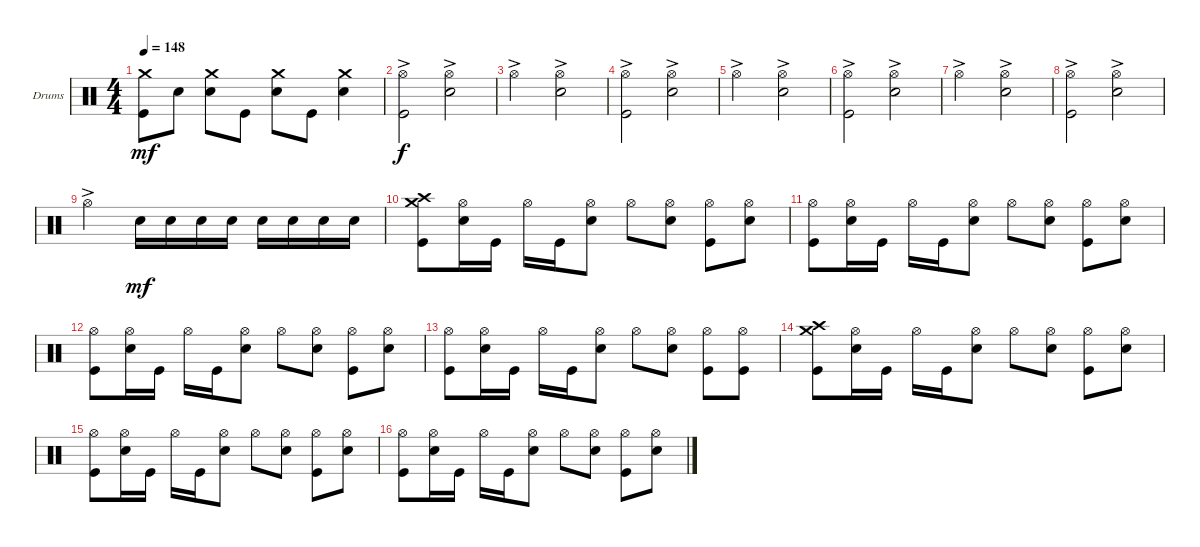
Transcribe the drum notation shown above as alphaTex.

\bracketExtendMode groupsimilarinstruments
\firstSystemTrackNameOrientation horizontal
\otherSystemsTrackNameOrientation horizontal
\track ("Drumkit" "Drums") {instrument percussion}
\staff {score}
\articulation defaults
\ts (4 4)
\tempo 148
\clef neutral
\scale
0.333333
\ks c
("Crash medium (hit)" "Kick (hit)").8{dy mf} "Snare (hit) 2".8 ("Crash medium (hit)" "Snare (hit) 2").8 "Kick (hit)".8 ("Snare (hit) 2" "Crash medium (hit)").8 "Kick (hit)".8 ("Snare (hit) 2" "Crash medium (hit)").4 |
\scale
0.333333 ("Kick (hit)" "Hi-Hat (open)"{ac}).2{dy f} ("Snare (hit) 2" "Hi-Hat (open)"{ac}).2 |
\scale
0.333333 "Hi-Hat (open)"{ac}.2 ("Snare (hit) 2" "Hi-Hat (open)"{ac}).2 |
\scale
0.333333 ("Kick (hit)" "Hi-Hat (open)"{ac}).2 ("Snare (hit) 2" "Hi-Hat (open)"{ac}).2 |
\scale
0.333333 "Hi-Hat (open)"{ac}.2 ("Snare (hit) 2" "Hi-Hat (open)"{ac}).2 |
\scale
0.333333 ("Kick (hit)" "Hi-Hat (open)"{ac}).2 ("Snare (hit) 2" "Hi-Hat (open)"{ac}).2 |
\scale
0.333333 "Hi-Hat (open)"{ac}.2 ("Snare (hit) 2" "Hi-Hat (open)"{ac}).2 |
\scale
0.333333 ("Kick (hit)" "Hi-Hat (open)"{ac}).2 ("Snare (hit) 2" "Hi-Hat (open)"{ac}).2 |
\scale
0.333333 "Hi-Hat (open)"{ac}.2 "Snare (hit) 2".16{dy mf} "Snare (hit) 2".16 "Snare (hit) 2".16 "Snare (hit) 2".16 "Snare (hit) 2".16 "Snare (hit) 2".16 "Snare (hit) 2".16 "Snare (hit) 2".16 |
\scale
0.333333 ("Kick (hit)" "Crash high (hit)" "Crash medium (hit)").8 ("Snare (hit) 2" "Hi-Hat (open)").16 "Kick (hit)".16 "Hi-Hat (open)".16 "Kick (hit)".16 ("Snare (hit) 2" "Hi-Hat (open)").8 "Hi-Hat (open)".8 ("Snare (hit) 2" "Hi-Hat (open)").8 ("Kick (hit)" "Hi-Hat (open)").8 ("Snare (hit) 2" "Hi-Hat (open)").8 |
\scale
0.333333 ("Kick (hit)" "Hi-Hat (open)").8 ("Snare (hit) 2" "Hi-Hat (open)").16 "Kick (hit)".16 "Hi-Hat (open)".16 "Kick (hit)".16 ("Snare (hit) 2" "Hi-Hat (open)").8 "Hi-Hat (open)".8 ("Snare (hit) 2" "Hi-Hat (open)").8 ("Kick (hit)" "Hi-Hat (open)").8 ("Snare (hit) 2" "Hi-Hat (open)").8 |
\scale
0.333333 ("Kick (hit)" "Hi-Hat (open)").8 ("Snare (hit) 2" "Hi-Hat (open)").16 "Kick (hit)".16 "Hi-Hat (open)".16 "Kick (hit)".16 ("Snare (hit) 2" "Hi-Hat (open)").8 "Hi-Hat (open)".8 ("Snare (hit) 2" "Hi-Hat (open)").8 ("Kick (hit)" "Hi-Hat (open)").8 ("Snare (hit) 2" "Hi-Hat (open)").8 |
\scale
0.333333 ("Kick (hit)" "Hi-Hat (open)").8 ("Snare (hit) 2" "Hi-Hat (open)").16 "Kick (hit)".16 "Hi-Hat (open)".16 "Kick (hit)".16 ("Snare (hit) 2" "Hi-Hat (open)").8 "Hi-Hat (open)".8 ("Snare (hit) 2" "Hi-Hat (open)").8 ("Kick (hit)" "Hi-Hat (open)").8 ("Hi-Hat (open)" "Kick (hit)").8 |
\scale
0.333333 ("Kick (hit)" "Crash high (hit)" "Crash medium (hit)").8 ("Snare (hit) 2" "Hi-Hat (open)").16 "Kick (hit)".16 "Hi-Hat (open)".16 "Kick (hit)".16 ("Snare (hit) 2" "Hi-Hat (open)").8 "Hi-Hat (open)".8 ("Snare (hit) 2" "Hi-Hat (open)").8 ("Kick (hit)" "Hi-Hat (open)").8 ("Snare (hit) 2" "Hi-Hat (open)").8 |
\scale
0.333333 ("Kick (hit)" "Hi-Hat (open)").8 ("Snare (hit) 2" "Hi-Hat (open)").16 "Kick (hit)".16 "Hi-Hat (open)".16 "Kick (hit)".16 ("Snare (hit) 2" "Hi-Hat (open)").8 "Hi-Hat (open)".8 ("Snare (hit) 2" "Hi-Hat (open)").8 ("Kick (hit)" "Hi-Hat (open)").8 ("Snare (hit) 2" "Hi-Hat (open)").8 |
\scale
0.333333 ("Kick (hit)" "Hi-Hat (open)").8 ("Snare (hit) 2" "Hi-Hat (open)").16 "Kick (hit)".16 "Hi-Hat (open)".16 "Kick (hit)".16 ("Snare (hit) 2" "Hi-Hat (open)").8 "Hi-Hat (open)".8 ("Snare (hit) 2" "Hi-Hat (open)").8 ("Kick (hit)" "Hi-Hat (open)").8 ("Snare (hit) 2" "Hi-Hat (open)").8
